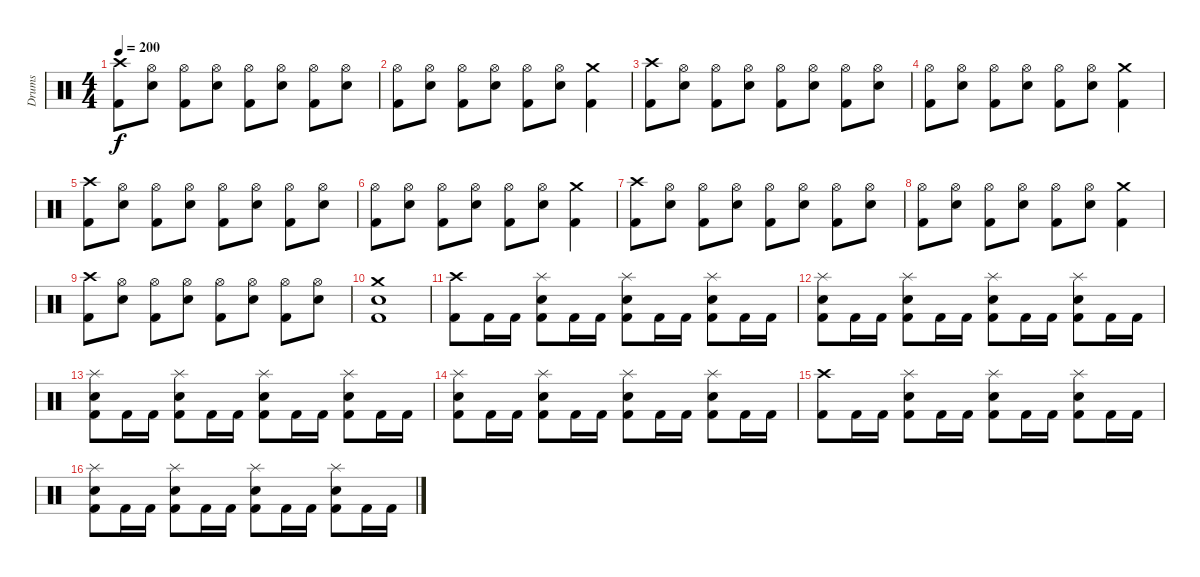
\track ("Drums" "Drums") {instrument percussion}
\staff {score}
\articulation defaults
\ts (4 4)
\tempo 200
\clef neutral
\ks c
("Crash high (hit)" "Kick (hit) 2").8{dy f} ("Hi-Hat (open)" "Electric Snare (hit)").8 ("Hi-Hat (open)" "Kick (hit) 2").8 ("Hi-Hat (open)" "Electric Snare (hit)").8 ("Hi-Hat (open)" "Kick (hit) 2").8 ("Hi-Hat (open)" "Electric Snare (hit)").8 ("Hi-Hat (open)" "Kick (hit) 2").8 ("Hi-Hat (open)" "Electric Snare (hit)").8 |
("Hi-Hat (open)" "Kick (hit) 2").8 ("Hi-Hat (open)" "Electric Snare (hit)").8 ("Hi-Hat (open)" "Kick (hit) 2").8 ("Hi-Hat (open)" "Electric Snare (hit)").8 ("Hi-Hat (open)" "Kick (hit) 2").8 ("Hi-Hat (open)" "Electric Snare (hit)").8 ("Crash medium (hit)" "Kick (hit) 2").4 |
("Crash high (hit)" "Kick (hit) 2").8 ("Hi-Hat (open)" "Electric Snare (hit)").8 ("Hi-Hat (open)" "Kick (hit) 2").8 ("Hi-Hat (open)" "Electric Snare (hit)").8 ("Hi-Hat (open)" "Kick (hit) 2").8 ("Hi-Hat (open)" "Electric Snare (hit)").8 ("Hi-Hat (open)" "Kick (hit) 2").8 ("Hi-Hat (open)" "Electric Snare (hit)").8 |
("Hi-Hat (open)" "Kick (hit) 2").8 ("Hi-Hat (open)" "Electric Snare (hit)").8 ("Hi-Hat (open)" "Kick (hit) 2").8 ("Hi-Hat (open)" "Electric Snare (hit)").8 ("Hi-Hat (open)" "Kick (hit) 2").8 ("Hi-Hat (open)" "Electric Snare (hit)").8 ("Crash medium (hit)" "Kick (hit) 2").4 |
("Crash high (hit)" "Kick (hit) 2").8 ("Hi-Hat (open)" "Electric Snare (hit)").8 ("Hi-Hat (open)" "Kick (hit) 2").8 ("Hi-Hat (open)" "Electric Snare (hit)").8 ("Hi-Hat (open)" "Kick (hit) 2").8 ("Hi-Hat (open)" "Electric Snare (hit)").8 ("Hi-Hat (open)" "Kick (hit) 2").8 ("Hi-Hat (open)" "Electric Snare (hit)").8 |
("Hi-Hat (open)" "Kick (hit) 2").8 ("Hi-Hat (open)" "Electric Snare (hit)").8 ("Hi-Hat (open)" "Kick (hit) 2").8 ("Hi-Hat (open)" "Electric Snare (hit)").8 ("Hi-Hat (open)" "Kick (hit) 2").8 ("Hi-Hat (open)" "Electric Snare (hit)").8 ("Crash medium (hit)" "Kick (hit) 2").4 |
("Crash high (hit)" "Kick (hit) 2").8 ("Hi-Hat (open)" "Electric Snare (hit)").8 ("Hi-Hat (open)" "Kick (hit) 2").8 ("Hi-Hat (open)" "Electric Snare (hit)").8 ("Hi-Hat (open)" "Kick (hit) 2").8 ("Hi-Hat (open)" "Electric Snare (hit)").8 ("Hi-Hat (open)" "Kick (hit) 2").8 ("Hi-Hat (open)" "Electric Snare (hit)").8 |
("Hi-Hat (open)" "Kick (hit) 2").8 ("Hi-Hat (open)" "Electric Snare (hit)").8 ("Hi-Hat (open)" "Kick (hit) 2").8 ("Hi-Hat (open)" "Electric Snare (hit)").8 ("Hi-Hat (open)" "Kick (hit) 2").8 ("Hi-Hat (open)" "Electric Snare (hit)").8 ("Crash medium (hit)" "Kick (hit) 2").4 |
("Crash high (hit)" "Kick (hit) 2").8 ("Hi-Hat (open)" "Electric Snare (hit)").8 ("Hi-Hat (open)" "Kick (hit) 2").8 ("Hi-Hat (open)" "Electric Snare (hit)").8 ("Hi-Hat (open)" "Kick (hit) 2").8 ("Hi-Hat (open)" "Electric Snare (hit)").8 ("Hi-Hat (open)" "Kick (hit) 2").8 ("Hi-Hat (open)" "Electric Snare (hit)").8 |
("Crash medium (hit)" "Electric Snare (hit)" "Kick (hit) 2").1 |
("Crash high (hit)" "Kick (hit) 2").8 "Kick (hit) 2".16 "Kick (hit) 2".16 ("Splash (hit)" "Electric Snare (hit)" "Kick (hit) 2").8 "Kick (hit) 2".16 "Kick (hit) 2".16 ("Splash (hit)" "Electric Snare (hit)" "Kick (hit) 2").8 "Kick (hit) 2".16 "Kick (hit) 2".16 ("Splash (hit)" "Electric Snare (hit)" "Kick (hit) 2").8 "Kick (hit) 2".16 "Kick (hit) 2".16 |
("Splash (hit)" "Electric Snare (hit)" "Kick (hit) 2").8 "Kick (hit) 2".16 "Kick (hit) 2".16 ("Splash (hit)" "Electric Snare (hit)" "Kick (hit) 2").8 "Kick (hit) 2".16 "Kick (hit) 2".16 ("Splash (hit)" "Electric Snare (hit)" "Kick (hit) 2").8 "Kick (hit) 2".16 "Kick (hit) 2".16 ("Splash (hit)" "Electric Snare (hit)" "Kick (hit) 2").8 "Kick (hit) 2".16 "Kick (hit) 2".16 |
("Splash (hit)" "Electric Snare (hit)" "Kick (hit) 2").8 "Kick (hit) 2".16 "Kick (hit) 2".16 ("Splash (hit)" "Electric Snare (hit)" "Kick (hit) 2").8 "Kick (hit) 2".16 "Kick (hit) 2".16 ("Splash (hit)" "Electric Snare (hit)" "Kick (hit) 2").8 "Kick (hit) 2".16 "Kick (hit) 2".16 ("Splash (hit)" "Electric Snare (hit)" "Kick (hit) 2").8 "Kick (hit) 2".16 "Kick (hit) 2".16 |
("Splash (hit)" "Electric Snare (hit)" "Kick (hit) 2").8 "Kick (hit) 2".16 "Kick (hit) 2".16 ("Splash (hit)" "Electric Snare (hit)" "Kick (hit) 2").8 "Kick (hit) 2".16 "Kick (hit) 2".16 ("Splash (hit)" "Electric Snare (hit)" "Kick (hit) 2").8 "Kick (hit) 2".16 "Kick (hit) 2".16 ("Splash (hit)" "Electric Snare (hit)" "Kick (hit) 2").8 "Kick (hit) 2".16 "Kick (hit) 2".16 |
("Crash high (hit)" "Kick (hit) 2").8 "Kick (hit) 2".16 "Kick (hit) 2".16 ("Splash (hit)" "Electric Snare (hit)" "Kick (hit) 2").8 "Kick (hit) 2".16 "Kick (hit) 2".16 ("Splash (hit)" "Electric Snare (hit)" "Kick (hit) 2").8 "Kick (hit) 2".16 "Kick (hit) 2".16 ("Splash (hit)" "Electric Snare (hit)" "Kick (hit) 2").8 "Kick (hit) 2".16 "Kick (hit) 2".16 |
("Splash (hit)" "Electric Snare (hit)" "Kick (hit) 2").8 "Kick (hit) 2".16 "Kick (hit) 2".16 ("Splash (hit)" "Electric Snare (hit)" "Kick (hit) 2").8 "Kick (hit) 2".16 "Kick (hit) 2".16 ("Splash (hit)" "Electric Snare (hit)" "Kick (hit) 2").8 "Kick (hit) 2".16 "Kick (hit) 2".16 ("Splash (hit)" "Electric Snare (hit)" "Kick (hit) 2").8 "Kick (hit) 2".16 "Kick (hit) 2".16
